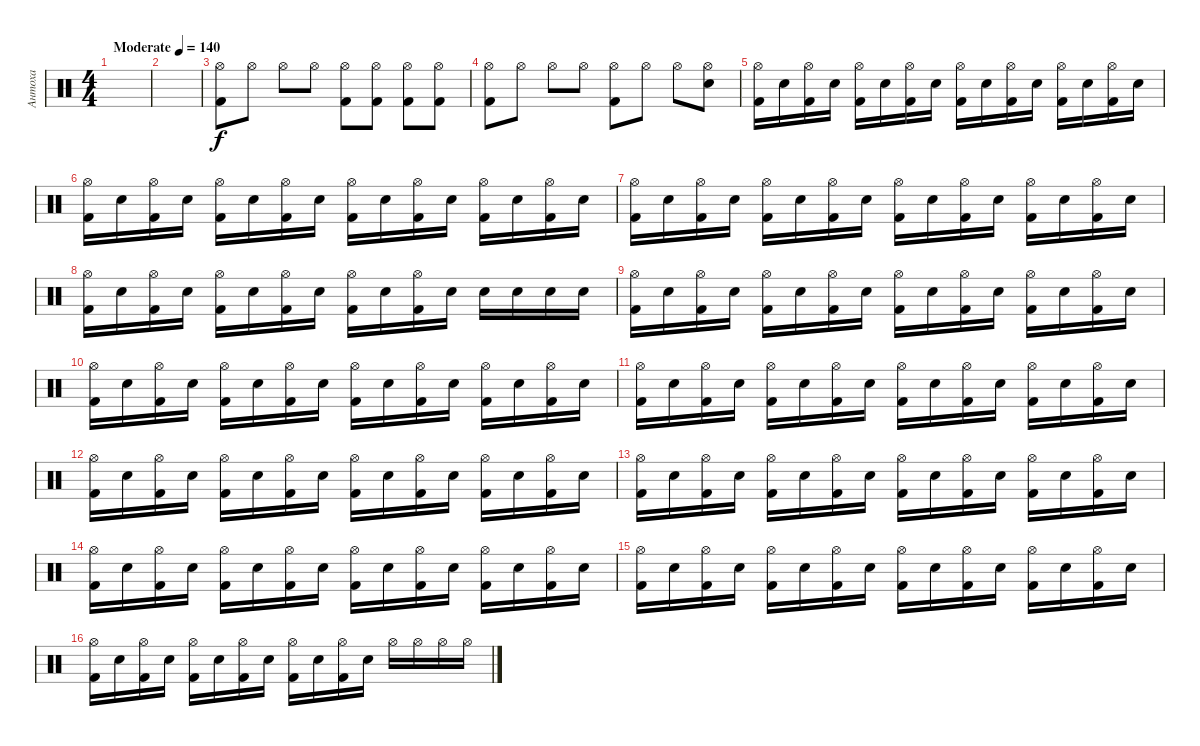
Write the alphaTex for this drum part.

\track ("Антоха" "Антоха") {instrument percussion}
\staff {score}
\articulation defaults
\ts (4 4)
\tempo (140 "Moderate")
\clef neutral
\ks c
|
|
("Hi-Hat (open)" "Kick (hit) 2").8 "Hi-Hat (open)".8 "Hi-Hat (open)".8 "Hi-Hat (open)".8 ("Hi-Hat (open)" "Kick (hit) 2").8 ("Hi-Hat (open)" "Kick (hit) 2").8 ("Hi-Hat (open)" "Kick (hit) 2").8 ("Hi-Hat (open)" "Kick (hit) 2").8 |
("Hi-Hat (open)" "Kick (hit) 2").8 "Hi-Hat (open)".8 "Hi-Hat (open)".8 "Hi-Hat (open)".8 ("Hi-Hat (open)" "Kick (hit) 2").8 "Hi-Hat (open)".8 "Hi-Hat (open)".8 ("Hi-Hat (open)" "Electric Snare (hit)").8 |
("Hi-Hat (open)" "Kick (hit) 2").16 "Electric Snare (hit)".16 ("Hi-Hat (open)" "Kick (hit) 2").16 "Electric Snare (hit)".16 ("Hi-Hat (open)" "Kick (hit) 2").16 "Electric Snare (hit)".16 ("Hi-Hat (open)" "Kick (hit) 2").16 "Electric Snare (hit)".16 ("Hi-Hat (open)" "Kick (hit) 2").16 "Electric Snare (hit)".16 ("Hi-Hat (open)" "Kick (hit) 2").16 "Electric Snare (hit)".16 ("Hi-Hat (open)" "Kick (hit) 2").16 "Electric Snare (hit)".16 ("Hi-Hat (open)" "Kick (hit) 2").16 "Electric Snare (hit)".16 |
("Hi-Hat (open)" "Kick (hit) 2").16 "Electric Snare (hit)".16 ("Hi-Hat (open)" "Kick (hit) 2").16 "Electric Snare (hit)".16 ("Hi-Hat (open)" "Kick (hit) 2").16 "Electric Snare (hit)".16 ("Hi-Hat (open)" "Kick (hit) 2").16 "Electric Snare (hit)".16 ("Hi-Hat (open)" "Kick (hit) 2").16 "Electric Snare (hit)".16 ("Hi-Hat (open)" "Kick (hit) 2").16 "Electric Snare (hit)".16 ("Hi-Hat (open)" "Kick (hit) 2").16 "Electric Snare (hit)".16 ("Hi-Hat (open)" "Kick (hit) 2").16 "Electric Snare (hit)".16 |
("Hi-Hat (open)" "Kick (hit) 2").16 "Electric Snare (hit)".16 ("Hi-Hat (open)" "Kick (hit) 2").16 "Electric Snare (hit)".16 ("Hi-Hat (open)" "Kick (hit) 2").16 "Electric Snare (hit)".16 ("Hi-Hat (open)" "Kick (hit) 2").16 "Electric Snare (hit)".16 ("Hi-Hat (open)" "Kick (hit) 2").16 "Electric Snare (hit)".16 ("Hi-Hat (open)" "Kick (hit) 2").16 "Electric Snare (hit)".16 ("Hi-Hat (open)" "Kick (hit) 2").16 "Electric Snare (hit)".16 ("Hi-Hat (open)" "Kick (hit) 2").16 "Electric Snare (hit)".16 |
("Hi-Hat (open)" "Kick (hit) 2").16 "Electric Snare (hit)".16 ("Hi-Hat (open)" "Kick (hit) 2").16 "Electric Snare (hit)".16 ("Hi-Hat (open)" "Kick (hit) 2").16 "Electric Snare (hit)".16 ("Hi-Hat (open)" "Kick (hit) 2").16 "Electric Snare (hit)".16 ("Hi-Hat (open)" "Kick (hit) 2").16 "Electric Snare (hit)".16 ("Hi-Hat (open)" "Kick (hit) 2").16 "Electric Snare (hit)".16 "Electric Snare (hit)".16 "Electric Snare (hit)".16 "Electric Snare (hit)".16 "Electric Snare (hit)".16 |
("Hi-Hat (open)" "Kick (hit) 2").16 "Electric Snare (hit)".16 ("Hi-Hat (open)" "Kick (hit) 2").16 "Electric Snare (hit)".16 ("Hi-Hat (open)" "Kick (hit) 2").16 "Electric Snare (hit)".16 ("Hi-Hat (open)" "Kick (hit) 2").16 "Electric Snare (hit)".16 ("Hi-Hat (open)" "Kick (hit) 2").16 "Electric Snare (hit)".16 ("Hi-Hat (open)" "Kick (hit) 2").16 "Electric Snare (hit)".16 ("Hi-Hat (open)" "Kick (hit) 2").16 "Electric Snare (hit)".16 ("Hi-Hat (open)" "Kick (hit) 2").16 "Electric Snare (hit)".16 |
("Hi-Hat (open)" "Kick (hit) 2").16 "Electric Snare (hit)".16 ("Hi-Hat (open)" "Kick (hit) 2").16 "Electric Snare (hit)".16 ("Hi-Hat (open)" "Kick (hit) 2").16 "Electric Snare (hit)".16 ("Hi-Hat (open)" "Kick (hit) 2").16 "Electric Snare (hit)".16 ("Hi-Hat (open)" "Kick (hit) 2").16 "Electric Snare (hit)".16 ("Hi-Hat (open)" "Kick (hit) 2").16 "Electric Snare (hit)".16 ("Hi-Hat (open)" "Kick (hit) 2").16 "Electric Snare (hit)".16 ("Hi-Hat (open)" "Kick (hit) 2").16 "Electric Snare (hit)".16 |
("Hi-Hat (open)" "Kick (hit) 2").16 "Electric Snare (hit)".16 ("Hi-Hat (open)" "Kick (hit) 2").16 "Electric Snare (hit)".16 ("Hi-Hat (open)" "Kick (hit) 2").16 "Electric Snare (hit)".16 ("Hi-Hat (open)" "Kick (hit) 2").16 "Electric Snare (hit)".16 ("Hi-Hat (open)" "Kick (hit) 2").16 "Electric Snare (hit)".16 ("Hi-Hat (open)" "Kick (hit) 2").16 "Electric Snare (hit)".16 ("Hi-Hat (open)" "Kick (hit) 2").16 "Electric Snare (hit)".16 ("Hi-Hat (open)" "Kick (hit) 2").16 "Electric Snare (hit)".16 |
("Hi-Hat (open)" "Kick (hit) 2").16 "Electric Snare (hit)".16 ("Hi-Hat (open)" "Kick (hit) 2").16 "Electric Snare (hit)".16 ("Hi-Hat (open)" "Kick (hit) 2").16 "Electric Snare (hit)".16 ("Hi-Hat (open)" "Kick (hit) 2").16 "Electric Snare (hit)".16 ("Hi-Hat (open)" "Kick (hit) 2").16 "Electric Snare (hit)".16 ("Hi-Hat (open)" "Kick (hit) 2").16 "Electric Snare (hit)".16 ("Hi-Hat (open)" "Kick (hit) 2").16 "Electric Snare (hit)".16 ("Hi-Hat (open)" "Kick (hit) 2").16 "Electric Snare (hit)".16 |
("Hi-Hat (open)" "Kick (hit) 2").16 "Electric Snare (hit)".16 ("Hi-Hat (open)" "Kick (hit) 2").16 "Electric Snare (hit)".16 ("Hi-Hat (open)" "Kick (hit) 2").16 "Electric Snare (hit)".16 ("Hi-Hat (open)" "Kick (hit) 2").16 "Electric Snare (hit)".16 ("Hi-Hat (open)" "Kick (hit) 2").16 "Electric Snare (hit)".16 ("Hi-Hat (open)" "Kick (hit) 2").16 "Electric Snare (hit)".16 ("Hi-Hat (open)" "Kick (hit) 2").16 "Electric Snare (hit)".16 ("Hi-Hat (open)" "Kick (hit) 2").16 "Electric Snare (hit)".16 |
("Hi-Hat (open)" "Kick (hit) 2").16 "Electric Snare (hit)".16 ("Hi-Hat (open)" "Kick (hit) 2").16 "Electric Snare (hit)".16 ("Hi-Hat (open)" "Kick (hit) 2").16 "Electric Snare (hit)".16 ("Hi-Hat (open)" "Kick (hit) 2").16 "Electric Snare (hit)".16 ("Hi-Hat (open)" "Kick (hit) 2").16 "Electric Snare (hit)".16 ("Hi-Hat (open)" "Kick (hit) 2").16 "Electric Snare (hit)".16 ("Hi-Hat (open)" "Kick (hit) 2").16 "Electric Snare (hit)".16 ("Hi-Hat (open)" "Kick (hit) 2").16 "Electric Snare (hit)".16 |
("Hi-Hat (open)" "Kick (hit) 2").16 "Electric Snare (hit)".16 ("Hi-Hat (open)" "Kick (hit) 2").16 "Electric Snare (hit)".16 ("Hi-Hat (open)" "Kick (hit) 2").16 "Electric Snare (hit)".16 ("Hi-Hat (open)" "Kick (hit) 2").16 "Electric Snare (hit)".16 ("Hi-Hat (open)" "Kick (hit) 2").16 "Electric Snare (hit)".16 ("Hi-Hat (open)" "Kick (hit) 2").16 "Electric Snare (hit)".16 ("Hi-Hat (open)" "Kick (hit) 2").16 "Electric Snare (hit)".16 ("Hi-Hat (open)" "Kick (hit) 2").16 "Electric Snare (hit)".16 |
("Hi-Hat (open)" "Kick (hit) 2").16 "Electric Snare (hit)".16 ("Hi-Hat (open)" "Kick (hit) 2").16 "Electric Snare (hit)".16 ("Hi-Hat (open)" "Kick (hit) 2").16 "Electric Snare (hit)".16 ("Hi-Hat (open)" "Kick (hit) 2").16 "Electric Snare (hit)".16 ("Hi-Hat (open)" "Kick (hit) 2").16 "Electric Snare (hit)".16 ("Hi-Hat (open)" "Kick (hit) 2").16 "Electric Snare (hit)".16 "Hi-Hat (open)".16 "Hi-Hat (open)".16 "Hi-Hat (open)".16 "Hi-Hat (open)".16
